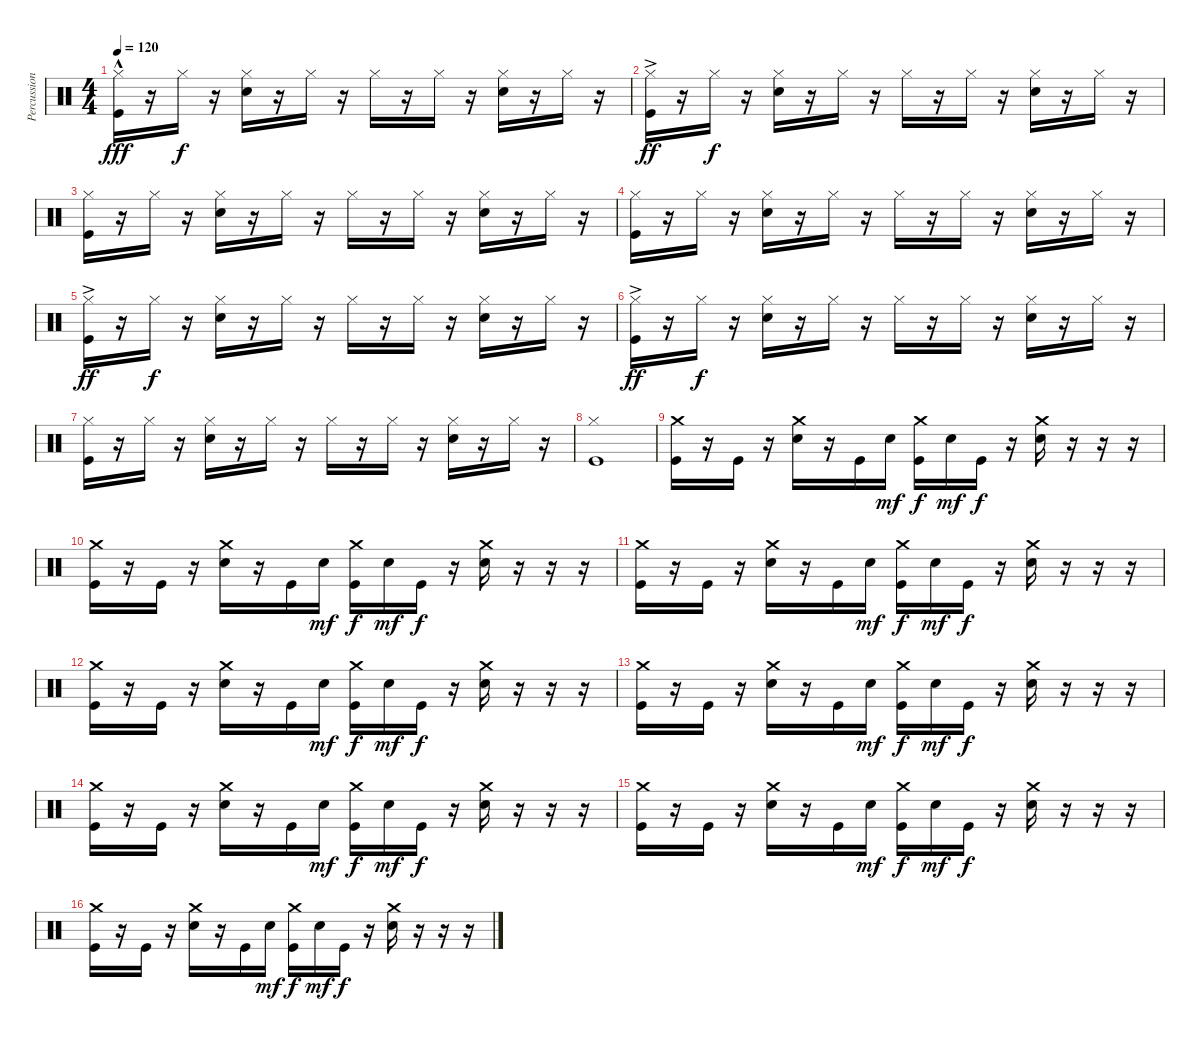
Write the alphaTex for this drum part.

\track ("Percussions" "Percussion") {instrument percussion}
\staff {score}
\articulation defaults
\ts (4 4)
\tempo 120
\clef neutral
\ks c
("Kick (hit)"{hac} "Hi-Hat (closed)"{hac}).16{dy fff} r.16 "Hi-Hat (closed)".16{dy f} r.16 ("Electric Snare (hit)" "Hi-Hat (closed)").16 r.16 "Hi-Hat (closed)".16 r.16 "Hi-Hat (closed)".16 r.16 "Hi-Hat (closed)".16 r.16 ("Electric Snare (hit)" "Hi-Hat (closed)").16 r.16 "Hi-Hat (closed)".16 r.16 |
("Kick (hit)"{ac} "Hi-Hat (closed)"{ac}).16{dy ff} r.16 "Hi-Hat (closed)".16{dy f} r.16 ("Electric Snare (hit)" "Hi-Hat (closed)").16 r.16 "Hi-Hat (closed)".16 r.16 "Hi-Hat (closed)".16 r.16 "Hi-Hat (closed)".16 r.16 ("Electric Snare (hit)" "Hi-Hat (closed)").16 r.16 "Hi-Hat (closed)".16 r.16 |
("Kick (hit)" "Hi-Hat (closed)").16 r.16 "Hi-Hat (closed)".16 r.16 ("Electric Snare (hit)" "Hi-Hat (closed)").16 r.16 "Hi-Hat (closed)".16 r.16 "Hi-Hat (closed)".16 r.16 "Hi-Hat (closed)".16 r.16 ("Electric Snare (hit)" "Hi-Hat (closed)").16 r.16 "Hi-Hat (closed)".16 r.16 |
("Kick (hit)" "Hi-Hat (closed)").16 r.16 "Hi-Hat (closed)".16 r.16 ("Electric Snare (hit)" "Hi-Hat (closed)").16 r.16 "Hi-Hat (closed)".16 r.16 "Hi-Hat (closed)".16 r.16 "Hi-Hat (closed)".16 r.16 ("Electric Snare (hit)" "Hi-Hat (closed)").16 r.16 "Hi-Hat (closed)".16 r.16 |
("Kick (hit)"{ac} "Hi-Hat (closed)"{ac}).16{dy ff} r.16 "Hi-Hat (closed)".16{dy f} r.16 ("Electric Snare (hit)" "Hi-Hat (closed)").16 r.16 "Hi-Hat (closed)".16 r.16 "Hi-Hat (closed)".16 r.16 "Hi-Hat (closed)".16 r.16 ("Electric Snare (hit)" "Hi-Hat (closed)").16 r.16 "Hi-Hat (closed)".16 r.16 |
("Kick (hit)"{ac} "Hi-Hat (closed)"{ac}).16{dy ff} r.16 "Hi-Hat (closed)".16{dy f} r.16 ("Electric Snare (hit)" "Hi-Hat (closed)").16 r.16 "Hi-Hat (closed)".16 r.16 "Hi-Hat (closed)".16 r.16 "Hi-Hat (closed)".16 r.16 ("Electric Snare (hit)" "Hi-Hat (closed)").16 r.16 "Hi-Hat (closed)".16 r.16 |
("Kick (hit)" "Hi-Hat (closed)").16 r.16 "Hi-Hat (closed)".16 r.16 ("Electric Snare (hit)" "Hi-Hat (closed)").16 r.16 "Hi-Hat (closed)".16 r.16 "Hi-Hat (closed)".16 r.16 "Hi-Hat (closed)".16 r.16 ("Electric Snare (hit)" "Hi-Hat (closed)").16 r.16 "Hi-Hat (closed)".16 r.16 |
("Kick (hit)" "Hi-Hat (closed)").1 |
("Kick (hit)" "Crash medium (hit)").16 r.16 "Kick (hit)".16 r.16 ("Electric Snare (hit)" "Crash medium (hit)").16 r.16 "Kick (hit)".16 "Electric Snare (hit)".16{dy mf} ("Kick (hit)" "Crash medium (hit)").16{dy f} "Electric Snare (hit)".16{dy mf} "Kick (hit)".16{dy f} r.16 ("Electric Snare (hit)" "Crash medium (hit)").16 r.16 r.16 r.16 |
("Kick (hit)" "Crash medium (hit)").16 r.16 "Kick (hit)".16 r.16 ("Electric Snare (hit)" "Crash medium (hit)").16 r.16 "Kick (hit)".16 "Electric Snare (hit)".16{dy mf} ("Kick (hit)" "Crash medium (hit)").16{dy f} "Electric Snare (hit)".16{dy mf} "Kick (hit)".16{dy f} r.16 ("Electric Snare (hit)" "Crash medium (hit)").16 r.16 r.16 r.16 |
("Kick (hit)" "Crash medium (hit)").16 r.16 "Kick (hit)".16 r.16 ("Electric Snare (hit)" "Crash medium (hit)").16 r.16 "Kick (hit)".16 "Electric Snare (hit)".16{dy mf} ("Kick (hit)" "Crash medium (hit)").16{dy f} "Electric Snare (hit)".16{dy mf} "Kick (hit)".16{dy f} r.16 ("Electric Snare (hit)" "Crash medium (hit)").16 r.16 r.16 r.16 |
("Kick (hit)" "Crash medium (hit)").16 r.16 "Kick (hit)".16 r.16 ("Electric Snare (hit)" "Crash medium (hit)").16 r.16 "Kick (hit)".16 "Electric Snare (hit)".16{dy mf} ("Kick (hit)" "Crash medium (hit)").16{dy f} "Electric Snare (hit)".16{dy mf} "Kick (hit)".16{dy f} r.16 ("Electric Snare (hit)" "Crash medium (hit)").16 r.16 r.16 r.16 |
("Kick (hit)" "Crash medium (hit)").16 r.16 "Kick (hit)".16 r.16 ("Electric Snare (hit)" "Crash medium (hit)").16 r.16 "Kick (hit)".16 "Electric Snare (hit)".16{dy mf} ("Kick (hit)" "Crash medium (hit)").16{dy f} "Electric Snare (hit)".16{dy mf} "Kick (hit)".16{dy f} r.16 ("Electric Snare (hit)" "Crash medium (hit)").16 r.16 r.16 r.16 |
("Kick (hit)" "Crash medium (hit)").16 r.16 "Kick (hit)".16 r.16 ("Electric Snare (hit)" "Crash medium (hit)").16 r.16 "Kick (hit)".16 "Electric Snare (hit)".16{dy mf} ("Kick (hit)" "Crash medium (hit)").16{dy f} "Electric Snare (hit)".16{dy mf} "Kick (hit)".16{dy f} r.16 ("Electric Snare (hit)" "Crash medium (hit)").16 r.16 r.16 r.16 |
("Kick (hit)" "Crash medium (hit)").16 r.16 "Kick (hit)".16 r.16 ("Electric Snare (hit)" "Crash medium (hit)").16 r.16 "Kick (hit)".16 "Electric Snare (hit)".16{dy mf} ("Kick (hit)" "Crash medium (hit)").16{dy f} "Electric Snare (hit)".16{dy mf} "Kick (hit)".16{dy f} r.16 ("Electric Snare (hit)" "Crash medium (hit)").16 r.16 r.16 r.16 |
("Kick (hit)" "Crash medium (hit)").16 r.16 "Kick (hit)".16 r.16 ("Electric Snare (hit)" "Crash medium (hit)").16 r.16 "Kick (hit)".16 "Electric Snare (hit)".16{dy mf} ("Kick (hit)" "Crash medium (hit)").16{dy f} "Electric Snare (hit)".16{dy mf} "Kick (hit)".16{dy f} r.16 ("Electric Snare (hit)" "Crash medium (hit)").16 r.16 r.16 r.16
